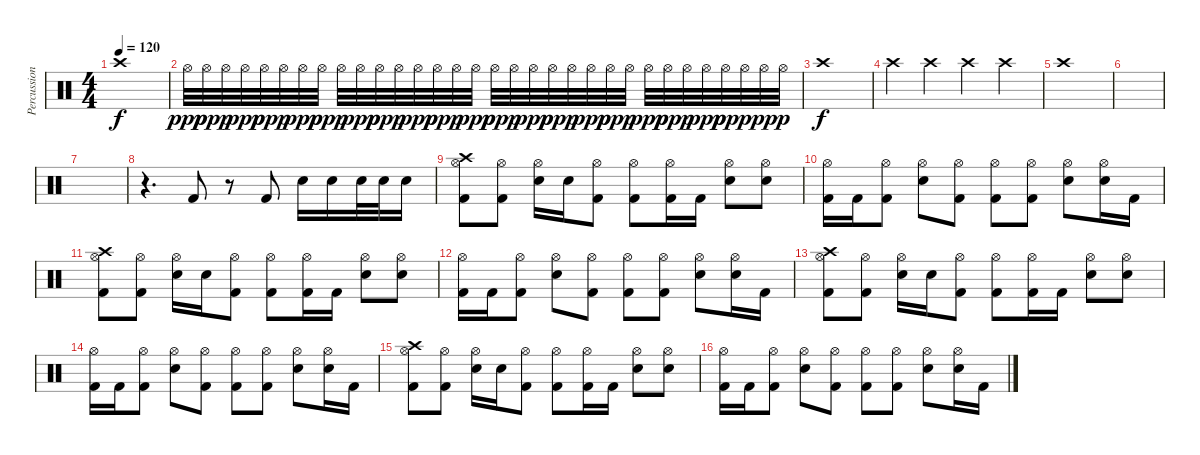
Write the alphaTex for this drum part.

\track ("Percussion" "Percussion") {instrument percussion}
\staff {score}
\articulation defaults
\ts (4 4)
\tempo 120
\clef neutral
\ks c "Crash high (hit)".1{dy f}
|
"Hi-Hat (open)".32{dy ppp} "Hi-Hat (open)".32{dy pp} "Hi-Hat (open)".32{dy p} "Hi-Hat (open)".32{dy ppp} "Hi-Hat (open)".32{dy pp} "Hi-Hat (open)".32{dy p} "Hi-Hat (open)".32{dy ppp} "Hi-Hat (open)".32{dy pp} "Hi-Hat (open)".32{dy p} "Hi-Hat (open)".32{dy ppp} "Hi-Hat (open)".32{dy pp} "Hi-Hat (open)".32{dy p} "Hi-Hat (open)".32{dy ppp} "Hi-Hat (open)".32{dy pp} "Hi-Hat (open)".32{dy p} "Hi-Hat (open)".32{dy ppp} "Hi-Hat (open)".32{dy pp} "Hi-Hat (open)".32{dy p} "Hi-Hat (open)".32{dy ppp} "Hi-Hat (open)".32{dy pp} "Hi-Hat (open)".32{dy p} "Hi-Hat (open)".32{dy ppp} "Hi-Hat (open)".32{dy pp} "Hi-Hat (open)".32{dy p} "Hi-Hat (open)".32{dy ppp} "Hi-Hat (open)".32{dy pp} "Hi-Hat (open)".32{dy p} "Hi-Hat (open)".32{dy ppp} "Hi-Hat (open)".32{dy pp} "Hi-Hat (open)".32{dy p} "Hi-Hat (open)".32{dy pp} "Hi-Hat (open)".32{dy p} |
"Crash high (hit)".1{dy f} |
"Crash high (hit)".4 "Crash high (hit)".4 "Crash high (hit)".4 "Crash high (hit)".4 |
"Crash high (hit)".1 |
|
|
r.4{d} "Kick (hit) 2".8 r.8 "Kick (hit) 2".8 "Snare (hit) 2".16 "Snare (hit) 2".16 "Snare (hit) 2".32 "Snare (hit) 2".32 "Snare (hit) 2".16 |
("Crash high (hit)" "Hi-Hat (open)" "Kick (hit) 2").8{volume 16} ("Hi-Hat (open)" "Kick (hit) 2").8 ("Hi-Hat (open)" "Snare (hit) 2").16 "Snare (hit) 2".16 ("Hi-Hat (open)" "Kick (hit) 2").8 ("Hi-Hat (open)" "Kick (hit) 2").8 ("Hi-Hat (open)" "Kick (hit) 2").16 "Kick (hit) 2".16 ("Hi-Hat (open)" "Snare (hit) 2").8 ("Hi-Hat (open)" "Snare (hit) 2").8 |
("Hi-Hat (open)" "Kick (hit) 2").16 "Kick (hit) 2".16 ("Hi-Hat (open)" "Kick (hit) 2").8 ("Hi-Hat (open)" "Snare (hit) 2").8 ("Hi-Hat (open)" "Kick (hit) 2").8 ("Hi-Hat (open)" "Kick (hit) 2").8 ("Hi-Hat (open)" "Kick (hit) 2").8 ("Hi-Hat (open)" "Snare (hit) 2").8 ("Hi-Hat (open)" "Snare (hit) 2").16 "Kick (hit) 2".16 |
("Crash high (hit)" "Hi-Hat (open)" "Kick (hit) 2").8 ("Hi-Hat (open)" "Kick (hit) 2").8 ("Hi-Hat (open)" "Snare (hit) 2").16 "Snare (hit) 2".16 ("Hi-Hat (open)" "Kick (hit) 2").8 ("Hi-Hat (open)" "Kick (hit) 2").8 ("Hi-Hat (open)" "Kick (hit) 2").16 "Kick (hit) 2".16 ("Hi-Hat (open)" "Snare (hit) 2").8 ("Hi-Hat (open)" "Snare (hit) 2").8 |
("Hi-Hat (open)" "Kick (hit) 2").16 "Kick (hit) 2".16 ("Hi-Hat (open)" "Kick (hit) 2").8 ("Hi-Hat (open)" "Snare (hit) 2").8 ("Hi-Hat (open)" "Kick (hit) 2").8 ("Hi-Hat (open)" "Kick (hit) 2").8 ("Hi-Hat (open)" "Kick (hit) 2").8 ("Hi-Hat (open)" "Snare (hit) 2").8 ("Hi-Hat (open)" "Snare (hit) 2").16 "Kick (hit) 2".16 |
("Crash high (hit)" "Hi-Hat (open)" "Kick (hit) 2").8 ("Hi-Hat (open)" "Kick (hit) 2").8 ("Hi-Hat (open)" "Snare (hit) 2").16 "Snare (hit) 2".16 ("Hi-Hat (open)" "Kick (hit) 2").8 ("Hi-Hat (open)" "Kick (hit) 2").8 ("Hi-Hat (open)" "Kick (hit) 2").16 "Kick (hit) 2".16 ("Hi-Hat (open)" "Snare (hit) 2").8 ("Hi-Hat (open)" "Snare (hit) 2").8 |
("Hi-Hat (open)" "Kick (hit) 2").16 "Kick (hit) 2".16 ("Hi-Hat (open)" "Kick (hit) 2").8 ("Hi-Hat (open)" "Snare (hit) 2").8 ("Hi-Hat (open)" "Kick (hit) 2").8 ("Hi-Hat (open)" "Kick (hit) 2").8 ("Hi-Hat (open)" "Kick (hit) 2").8 ("Hi-Hat (open)" "Snare (hit) 2").8 ("Hi-Hat (open)" "Snare (hit) 2").16 "Kick (hit) 2".16 |
("Crash high (hit)" "Hi-Hat (open)" "Kick (hit) 2").8 ("Hi-Hat (open)" "Kick (hit) 2").8 ("Hi-Hat (open)" "Snare (hit) 2").16 "Snare (hit) 2".16 ("Hi-Hat (open)" "Kick (hit) 2").8 ("Hi-Hat (open)" "Kick (hit) 2").8 ("Hi-Hat (open)" "Kick (hit) 2").16 "Kick (hit) 2".16 ("Hi-Hat (open)" "Snare (hit) 2").8 ("Hi-Hat (open)" "Snare (hit) 2").8 |
("Hi-Hat (open)" "Kick (hit) 2").16 "Kick (hit) 2".16 ("Hi-Hat (open)" "Kick (hit) 2").8 ("Hi-Hat (open)" "Snare (hit) 2").8 ("Hi-Hat (open)" "Kick (hit) 2").8 ("Hi-Hat (open)" "Kick (hit) 2").8 ("Hi-Hat (open)" "Kick (hit) 2").8 ("Hi-Hat (open)" "Snare (hit) 2").8 ("Hi-Hat (open)" "Snare (hit) 2").16 "Kick (hit) 2".16
